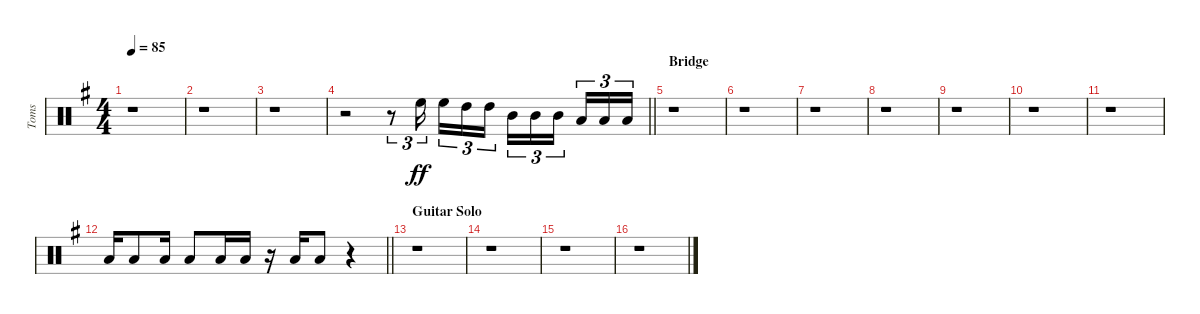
\track ("Toms" "Toms") {instrument percussion}
\staff {score}
\articulation defaults
\ts (4 4)
\tempo 85
\clef neutral
\ks g
r.1{dy fff} |
r.1 |
r.1 |
\barLineRight lightlight
r.2 r.8{tu (3 2)} "High Floor Tom (hit)".16{tu (3 2) dy ff volume 12 balance 12 beam splitsecondary} "High Floor Tom (hit)".16{tu (3 2)} "High Tom (hit)".16{tu (3 2) balance 9} "High Tom (hit)".16{tu (3 2)} "Mid Tom (hit)".16{tu (3 2) balance 7} "Mid Tom (hit)".16{tu (3 2)} "Mid Tom (hit)".16{tu (3 2) beam splitsecondary} "Low Tom (hit)".16{tu (3 2) balance 4} "Low Tom (hit)".16{tu (3 2)} "Low Tom (hit)".16{tu (3 2)} |
\section ("" "Bridge")
r.1 |
r.1 |
r.1 |
r.1 |
r.1 |
r.1 |
r.1 |
\barLineRight lightlight "Low Tom (hit)".16 "Low Tom (hit)".8 "Low Tom (hit)".16 "Low Tom (hit)".8 "Low Tom (hit)".16 "Low Tom (hit)".16
r.16 "Low Tom (hit)".16 "Low Tom (hit)".8 r.4{volume 0} |
\section ("" "Guitar Solo")
r.1 |
r.1 |
r.1 |
r.1
